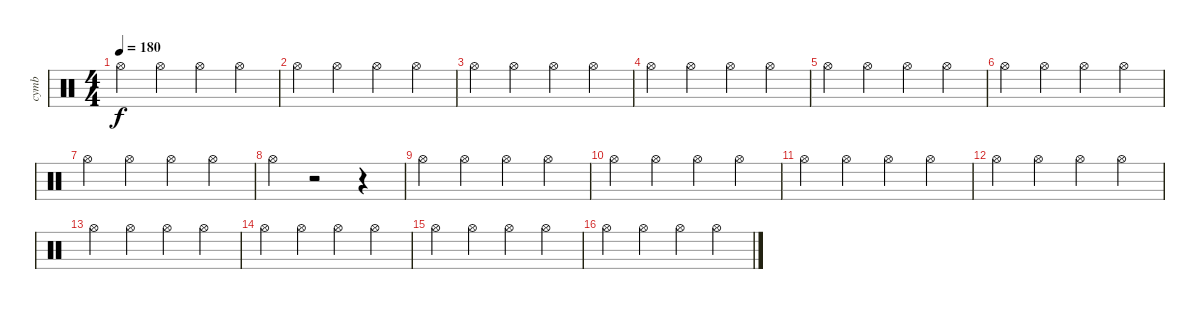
\track ("cymb" "cymb") {instrument percussion}
\staff {score}
\articulation defaults
\ts (4 4)
\tempo 180
\clef neutral
\ks c "Hi-Hat (open)".4{dy f} "Hi-Hat (open)".4 "Hi-Hat (open)".4 "Hi-Hat (open)".4
|
"Hi-Hat (open)".4 "Hi-Hat (open)".4 "Hi-Hat (open)".4 "Hi-Hat (open)".4 |
"Hi-Hat (open)".4 "Hi-Hat (open)".4 "Hi-Hat (open)".4 "Hi-Hat (open)".4 |
"Hi-Hat (open)".4 "Hi-Hat (open)".4 "Hi-Hat (open)".4 "Hi-Hat (open)".4 |
"Hi-Hat (open)".4 "Hi-Hat (open)".4 "Hi-Hat (open)".4 "Hi-Hat (open)".4 |
"Hi-Hat (open)".4 "Hi-Hat (open)".4 "Hi-Hat (open)".4 "Hi-Hat (open)".4 |
"Hi-Hat (open)".4 "Hi-Hat (open)".4 "Hi-Hat (open)".4 "Hi-Hat (open)".4 |
"Hi-Hat (open)".4 r.2 r.4 |
"Hi-Hat (open)".4 "Hi-Hat (open)".4 "Hi-Hat (open)".4 "Hi-Hat (open)".4 |
"Hi-Hat (open)".4 "Hi-Hat (open)".4 "Hi-Hat (open)".4 "Hi-Hat (open)".4 |
"Hi-Hat (open)".4 "Hi-Hat (open)".4 "Hi-Hat (open)".4 "Hi-Hat (open)".4 |
"Hi-Hat (open)".4 "Hi-Hat (open)".4 "Hi-Hat (open)".4 "Hi-Hat (open)".4 |
"Hi-Hat (open)".4 "Hi-Hat (open)".4 "Hi-Hat (open)".4 "Hi-Hat (open)".4 |
"Hi-Hat (open)".4 "Hi-Hat (open)".4 "Hi-Hat (open)".4 "Hi-Hat (open)".4 |
"Hi-Hat (open)".4 "Hi-Hat (open)".4 "Hi-Hat (open)".4 "Hi-Hat (open)".4 |
"Hi-Hat (open)".4 "Hi-Hat (open)".4 "Hi-Hat (open)".4 "Hi-Hat (open)".4
